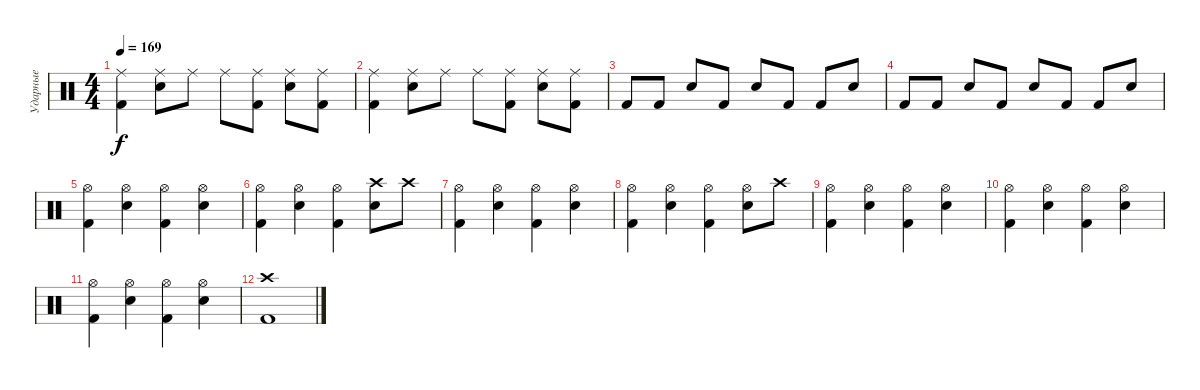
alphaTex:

\track ("Ударные" "Ударные") {instrument percussion}
\staff {score}
\articulation defaults
\ts (4 4)
\tempo 169
\clef neutral
\ks c
("Kick (hit) 2" "Ride (middle)").4{dy f} ("Electric Snare (hit)" "Ride (middle)").8 "Ride (middle)".8 "Ride (middle)".8 ("Kick (hit) 2" "Ride (middle)").8 ("Electric Snare (hit)" "Ride (middle)").8 ("Kick (hit) 2" "Ride (middle)").8 |
("Kick (hit) 2" "Ride (middle)").4 ("Electric Snare (hit)" "Ride (middle)").8 "Ride (middle)".8 "Ride (middle)".8 ("Kick (hit) 2" "Ride (middle)").8 ("Electric Snare (hit)" "Ride (middle)").8 ("Kick (hit) 2" "Ride (middle)").8 |
"Kick (hit) 2".8 "Kick (hit) 2".8 "Electric Snare (hit)".8 "Kick (hit) 2".8 "Electric Snare (hit)".8 "Kick (hit) 2".8 "Kick (hit) 2".8 "Electric Snare (hit)".8 |
"Kick (hit) 2".8 "Kick (hit) 2".8 "Electric Snare (hit)".8 "Kick (hit) 2".8 "Electric Snare (hit)".8 "Kick (hit) 2".8 "Kick (hit) 2".8 "Electric Snare (hit)".8 |
("Kick (hit) 2" "Hi-Hat (open)").4 ("Electric Snare (hit)" "Hi-Hat (open)").4 ("Kick (hit) 2" "Hi-Hat (open)").4 ("Electric Snare (hit)" "Hi-Hat (open)").4 |
("Kick (hit) 2" "Hi-Hat (open)").4 ("Electric Snare (hit)" "Hi-Hat (open)").4 ("Kick (hit) 2" "Hi-Hat (open)").4 ("Electric Snare (hit)" "Crash high (hit)").8 "Crash high (hit)".8 |
("Kick (hit) 2" "Hi-Hat (open)").4 ("Electric Snare (hit)" "Hi-Hat (open)").4 ("Kick (hit) 2" "Hi-Hat (open)").4 ("Electric Snare (hit)" "Hi-Hat (open)").4 |
("Kick (hit) 2" "Hi-Hat (open)").4 ("Electric Snare (hit)" "Hi-Hat (open)").4 ("Kick (hit) 2" "Hi-Hat (open)").4 ("Electric Snare (hit)" "Hi-Hat (open)").8 "Crash high (hit)".8 |
("Kick (hit) 2" "Hi-Hat (open)").4 ("Electric Snare (hit)" "Hi-Hat (open)").4 ("Kick (hit) 2" "Hi-Hat (open)").4 ("Electric Snare (hit)" "Hi-Hat (open)").4 |
("Kick (hit) 2" "Hi-Hat (open)").4 ("Electric Snare (hit)" "Hi-Hat (open)").4 ("Kick (hit) 2" "Hi-Hat (open)").4 ("Electric Snare (hit)" "Hi-Hat (open)").4 |
("Kick (hit) 2" "Hi-Hat (open)").4 ("Electric Snare (hit)" "Hi-Hat (open)").4 ("Kick (hit) 2" "Hi-Hat (open)").4 ("Electric Snare (hit)" "Hi-Hat (open)").4 |
("Kick (hit) 2" "Crash high (hit)").1
